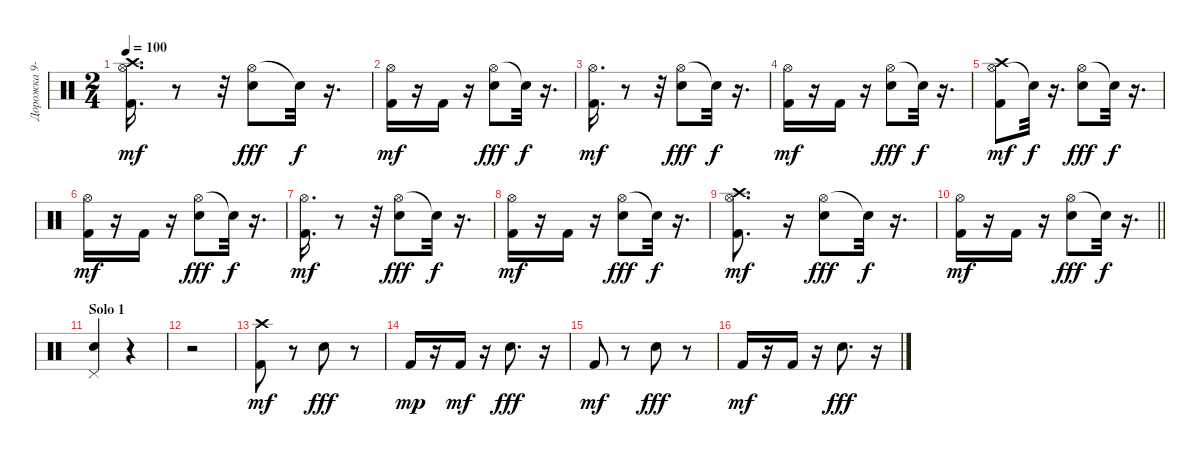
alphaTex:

\track ("Дорожка 9-10" "Дорожка 9-") {instrument percussion}
\staff {score}
\articulation defaults
\ts (2 4)
\tempo 100
\clef neutral
\ks c
("Hi-Hat (open)" "Crash high (hit)" "Kick (hit) 2").16{d dy mf} r.8 r.32 ("Hi-Hat (open)" "Snare (hit) 2").8{dy fff} "Snare (hit)"{t}.32{dy f} r.16{d} |
("Hi-Hat (open)" "Kick (hit) 2").16{dy mf} r.16 "Kick (hit) 2".16 r.16 ("Hi-Hat (open)" "Snare (hit) 2").8{dy fff} "Snare (hit)"{t}.32{dy f} r.16{d} |
("Hi-Hat (open)" "Kick (hit) 2").16{d dy mf} r.8 r.32 ("Hi-Hat (open)" "Snare (hit) 2").8{dy fff} "Snare (hit)"{t}.32{dy f} r.16{d} |
("Hi-Hat (open)" "Kick (hit) 2").16{dy mf} r.16 "Kick (hit) 2".16 r.16 ("Hi-Hat (open)" "Snare (hit) 2").8{dy fff} "Snare (hit)"{t}.32{dy f} r.16{d} |
("Hi-Hat (open)" "Crash high (hit)" "Kick (hit) 2").8{dy mf} "Snare (hit)"{t}.32{dy f} r.16{d} ("Hi-Hat (open)" "Snare (hit) 2").8{dy fff} "Snare (hit)"{t}.32{dy f} r.16{d} |
("Hi-Hat (open)" "Kick (hit) 2").16{dy mf} r.16 "Kick (hit) 2".16 r.16 ("Hi-Hat (open)" "Snare (hit) 2").8{dy fff} "Snare (hit)"{t}.32{dy f} r.16{d} |
("Hi-Hat (open)" "Kick (hit) 2").16{d dy mf} r.8 r.32 ("Hi-Hat (open)" "Snare (hit) 2").8{dy fff} "Snare (hit)"{t}.32{dy f} r.16{d} |
("Hi-Hat (open)" "Kick (hit) 2").16{dy mf} r.16 "Kick (hit) 2".16 r.16 ("Hi-Hat (open)" "Snare (hit) 2").8{dy fff} "Snare (hit)"{t}.32{dy f} r.16{d} |
("Hi-Hat (open)" "Crash high (hit)" "Kick (hit) 2").8{d dy mf} r.16 ("Hi-Hat (open)" "Snare (hit) 2").8{dy fff} "Snare (hit)"{t}.32{dy f} r.16{d} |
\barLineRight lightlight
("Hi-Hat (open)" "Kick (hit) 2").16{dy mf} r.16 "Kick (hit) 2".16 r.16 ("Hi-Hat (open)" "Snare (hit) 2").8{dy fff} "Snare (hit)"{t}.32{dy f} r.16{d} |
\section ("" "Solo 1")
("Pedal Hi-Hat (hit)" "Snare (hit) 2").4 r.4 |
r.2 |
("Crash high (hit)" "Kick (hit) 2").8{dy mf} r.8 "Snare (hit) 2".8{dy fff} r.8 |
"Kick (hit) 2".16{dy mp} r.16 "Kick (hit) 2".16{dy mf} r.16 "Snare (hit) 2".8{d dy fff} r.16 |
"Kick (hit) 2".8{dy mf} r.8 "Snare (hit) 2".8{dy fff} r.8 |
"Kick (hit) 2".16{dy mf} r.16 "Kick (hit) 2".16 r.16 "Snare (hit) 2".8{d dy fff} r.16
